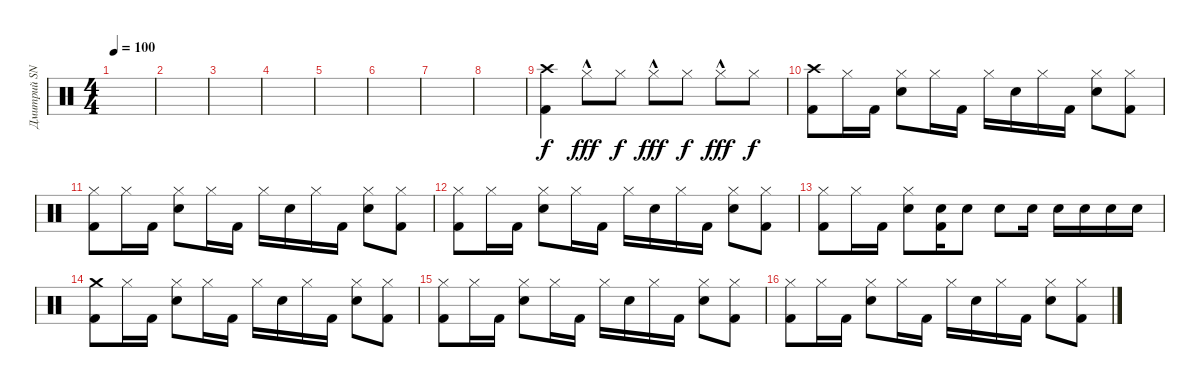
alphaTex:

\track ("Дмитрий SNAKE Хакимов" "Дмитрий SN") {instrument percussion}
\staff {score}
\articulation defaults
\ts (4 4)
\tempo 100
\clef neutral
\ks c
|
|
|
|
|
|
|
|
("Crash high (hit)" "Kick (hit) 2").4 "Hi-Hat (closed)"{hac}.8{dy fff} "Hi-Hat (closed)".8{dy f} "Hi-Hat (closed)"{hac}.8{dy fff} "Hi-Hat (closed)".8{dy f} "Hi-Hat (closed)"{hac}.8{dy fff} "Hi-Hat (closed)".8{dy f} |
("Crash high (hit)" "Kick (hit) 2").8 "Hi-Hat (closed)".16 "Kick (hit) 2".16 ("Hi-Hat (closed)" "Snare (hit) 2").8 "Hi-Hat (closed)".16 "Kick (hit) 2".16 "Hi-Hat (closed)".16 "Snare (hit) 2".16 "Hi-Hat (closed)".16 "Kick (hit) 2".16 ("Hi-Hat (closed)" "Snare (hit) 2").8 ("Hi-Hat (closed)" "Kick (hit) 2").8 |
("Hi-Hat (closed)" "Kick (hit) 2").8 "Hi-Hat (closed)".16 "Kick (hit) 2".16 ("Hi-Hat (closed)" "Snare (hit) 2").8 "Hi-Hat (closed)".16 "Kick (hit) 2".16 "Hi-Hat (closed)".16 "Snare (hit) 2".16 "Hi-Hat (closed)".16 "Kick (hit) 2".16 ("Hi-Hat (closed)" "Snare (hit) 2").8 ("Hi-Hat (closed)" "Kick (hit) 2").8 |
("Hi-Hat (closed)" "Kick (hit) 2").8 "Hi-Hat (closed)".16 "Kick (hit) 2".16 ("Hi-Hat (closed)" "Snare (hit) 2").8 "Hi-Hat (closed)".16 "Kick (hit) 2".16 "Hi-Hat (closed)".16 "Snare (hit) 2".16 "Hi-Hat (closed)".16 "Kick (hit) 2".16 ("Hi-Hat (closed)" "Snare (hit) 2").8 ("Hi-Hat (closed)" "Kick (hit) 2").8 |
("Hi-Hat (closed)" "Kick (hit) 2").8 "Hi-Hat (closed)".16 "Kick (hit) 2".16 ("Hi-Hat (closed)" "Snare (hit) 2").8 ("Snare (hit) 2" "Kick (hit) 2").16 "Snare (hit) 2".8 "Snare (hit) 2".8 "Snare (hit) 2".16 "Snare (hit) 2".16 "Snare (hit) 2".16 "Snare (hit) 2".16 "Snare (hit) 2".16 |
("Crash medium (hit)" "Kick (hit) 2").8 "Hi-Hat (closed)".16 "Kick (hit) 2".16 ("Hi-Hat (closed)" "Snare (hit) 2").8 "Hi-Hat (closed)".16 "Kick (hit) 2".16 "Hi-Hat (closed)".16 "Snare (hit) 2".16 "Hi-Hat (closed)".16 "Kick (hit) 2".16 ("Hi-Hat (closed)" "Snare (hit) 2").8 ("Hi-Hat (closed)" "Kick (hit) 2").8 |
("Hi-Hat (closed)" "Kick (hit) 2").8 "Hi-Hat (closed)".16 "Kick (hit) 2".16 ("Hi-Hat (closed)" "Snare (hit) 2").8 "Hi-Hat (closed)".16 "Kick (hit) 2".16 "Hi-Hat (closed)".16 "Snare (hit) 2".16 "Hi-Hat (closed)".16 "Kick (hit) 2".16 ("Hi-Hat (closed)" "Snare (hit) 2").8 ("Hi-Hat (closed)" "Kick (hit) 2").8 |
("Hi-Hat (closed)" "Kick (hit) 2").8 "Hi-Hat (closed)".16 "Kick (hit) 2".16 ("Hi-Hat (closed)" "Snare (hit) 2").8 "Hi-Hat (closed)".16 "Kick (hit) 2".16 "Hi-Hat (closed)".16 "Snare (hit) 2".16 "Hi-Hat (closed)".16 "Kick (hit) 2".16 ("Hi-Hat (closed)" "Snare (hit) 2").8 ("Hi-Hat (closed)" "Kick (hit) 2").8
